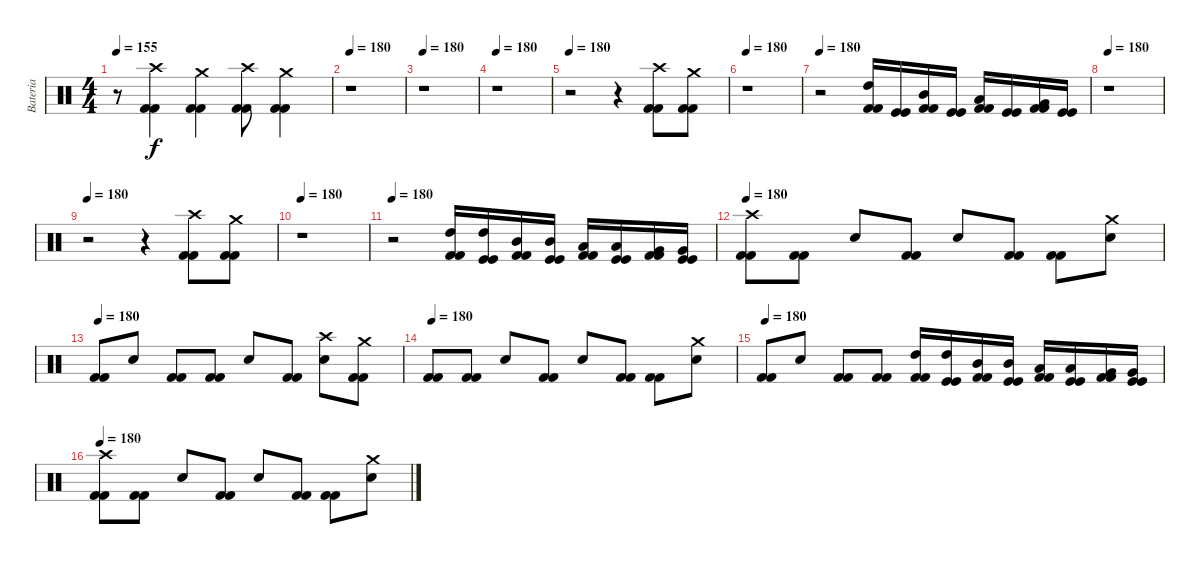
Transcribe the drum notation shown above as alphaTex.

\track ("Bateria" "Bateria") {instrument percussion}
\staff {score}
\articulation defaults
\ts (4 4)
\tempo 155
\clef neutral
\ks c
r.8{dy f} ("Kick (hit) 2" "Kick (hit) 2" "Crash high (hit)").4 ("Kick (hit) 2" "Kick (hit) 2" "Crash medium (hit)").4 ("Kick (hit) 2" "Kick (hit) 2" "Crash high (hit)").8 ("Kick (hit) 2" "Kick (hit) 2" "Crash medium (hit)").4 |
\tempo 180
r.1 |
\tempo 180
r.1 |
\tempo 180
r.1 |
\tempo 180
r.2 r.4 ("Kick (hit) 2" "Kick (hit) 2" "Crash high (hit)").8 ("Kick (hit) 2" "Kick (hit) 2" "Crash medium (hit)").8 |
\tempo 180
r.1 |
\tempo 180
r.2 ("Kick (hit) 2" "Kick (hit) 2" "High Tom (hit)").16 ("Kick (hit)" "Kick (hit)").16 ("Kick (hit) 2" "Kick (hit) 2" "Mid Tom (hit)").16 ("Kick (hit)" "Kick (hit)").16 ("Kick (hit) 2" "Kick (hit) 2" "Low Tom (hit)").16 ("Kick (hit)" "Kick (hit)").16 ("Kick (hit) 2" "Kick (hit) 2" "Very Low Tom (hit)").16 ("Kick (hit)" "Kick (hit)").16 |
\tempo 180
r.1 |
\tempo 180
r.2 r.4 ("Kick (hit) 2" "Kick (hit) 2" "Crash high (hit)").8 ("Kick (hit) 2" "Kick (hit) 2" "Crash medium (hit)").8 |
\tempo 180
r.1 |
\tempo 180
r.2 ("Kick (hit) 2" "Kick (hit) 2" "High Tom (hit)").16 ("Kick (hit)" "Kick (hit)" "High Tom (hit)").16 ("Kick (hit) 2" "Kick (hit) 2" "Mid Tom (hit)").16 ("Kick (hit)" "Kick (hit)" "Mid Tom (hit)").16 ("Kick (hit) 2" "Kick (hit) 2" "Low Tom (hit)").16 ("Kick (hit)" "Kick (hit)" "Low Tom (hit)").16 ("Kick (hit) 2" "Kick (hit) 2" "Very Low Tom (hit)").16 ("Kick (hit)" "Kick (hit)" "Very Low Tom (hit)").16 |
\tempo 180
("Kick (hit) 2" "Kick (hit) 2" "Crash high (hit)").8 ("Kick (hit) 2" "Kick (hit) 2").8 "Snare (hit) 2".8 ("Kick (hit) 2" "Kick (hit) 2").8 "Snare (hit) 2".8 ("Kick (hit) 2" "Kick (hit) 2").8 ("Kick (hit) 2" "Kick (hit) 2").8 ("Snare (hit) 2" "Crash medium (hit)").8 |
\tempo 180
("Kick (hit) 2" "Kick (hit) 2").8 "Snare (hit) 2".8 ("Kick (hit) 2" "Kick (hit) 2").8 ("Kick (hit) 2" "Kick (hit) 2").8 "Snare (hit) 2".8 ("Kick (hit) 2" "Kick (hit) 2").8 ("Snare (hit) 2" "Crash high (hit)").8 ("Kick (hit) 2" "Kick (hit) 2" "Crash medium (hit)").8 |
\tempo 180
("Kick (hit) 2" "Kick (hit) 2").8 ("Kick (hit) 2" "Kick (hit) 2").8 "Snare (hit) 2".8 ("Kick (hit) 2" "Kick (hit) 2").8 "Snare (hit) 2".8 ("Kick (hit) 2" "Kick (hit) 2").8 ("Kick (hit) 2" "Kick (hit) 2").8 ("Snare (hit) 2" "Crash medium (hit)").8 |
\tempo 180
("Kick (hit) 2" "Kick (hit) 2").8 "Snare (hit) 2".8 ("Kick (hit) 2" "Kick (hit) 2").8 ("Kick (hit) 2" "Kick (hit) 2").8 ("Kick (hit) 2" "Kick (hit) 2" "High Tom (hit)").16 ("Kick (hit)" "Kick (hit)" "High Tom (hit)").16 ("Kick (hit) 2" "Kick (hit) 2" "Mid Tom (hit)").16 ("Kick (hit)" "Kick (hit)" "Mid Tom (hit)").16 ("Kick (hit) 2" "Kick (hit) 2" "Low Tom (hit)").16 ("Kick (hit)" "Kick (hit)" "Low Tom (hit)").16 ("Kick (hit) 2" "Kick (hit) 2" "Very Low Tom (hit)").16 ("Kick (hit)" "Kick (hit)" "Very Low Tom (hit)").16 |
\tempo 180
("Kick (hit) 2" "Kick (hit) 2" "Crash high (hit)").8 ("Kick (hit) 2" "Kick (hit) 2").8 "Snare (hit) 2".8 ("Kick (hit) 2" "Kick (hit) 2").8 "Snare (hit) 2".8 ("Kick (hit) 2" "Kick (hit) 2").8 ("Kick (hit) 2" "Kick (hit) 2").8 ("Snare (hit) 2" "Crash medium (hit)").8
